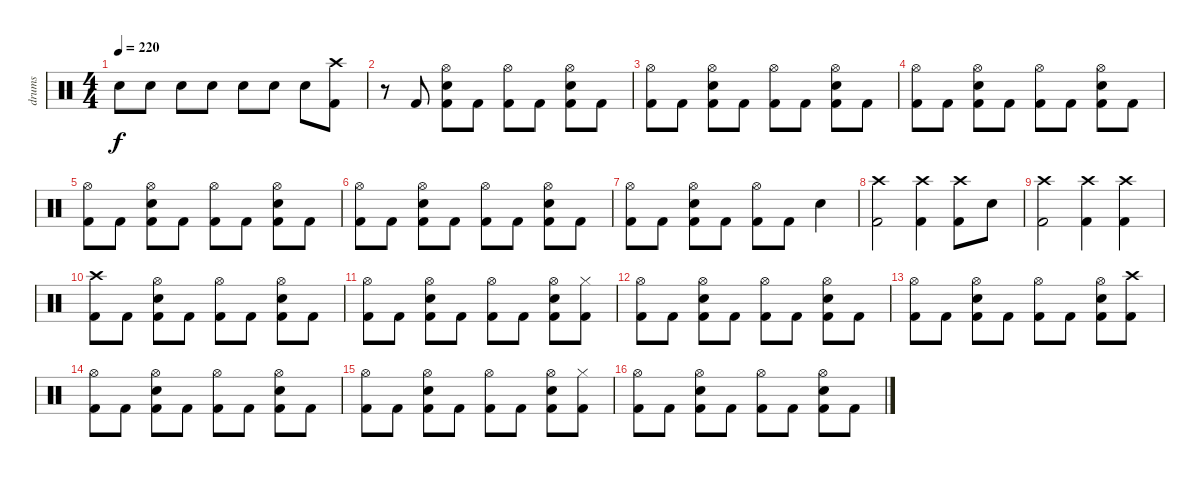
\track ("drums" "drums") {instrument percussion}
\staff {score}
\articulation defaults
\ts (4 4)
\tempo 220
\clef neutral
\ks c "Electric Snare (hit)".8{dy f} "Electric Snare (hit)".8 "Electric Snare (hit)".8 "Electric Snare (hit)".8 "Electric Snare (hit)".8 "Electric Snare (hit)".8 "Electric Snare (hit)".8
("Crash high (hit)" "Kick (hit) 2").8 |
r.8 "Kick (hit) 2".8 ("Hi-Hat (open)" "Electric Snare (hit)" "Kick (hit) 2").8 "Kick (hit) 2".8 ("Hi-Hat (open)" "Kick (hit) 2").8 "Kick (hit) 2".8 ("Hi-Hat (open)" "Electric Snare (hit)" "Kick (hit) 2").8 "Kick (hit) 2".8 |
("Hi-Hat (open)" "Kick (hit) 2").8 "Kick (hit) 2".8 ("Hi-Hat (open)" "Electric Snare (hit)" "Kick (hit) 2").8 "Kick (hit) 2".8 ("Hi-Hat (open)" "Kick (hit) 2").8 "Kick (hit) 2".8 ("Hi-Hat (open)" "Electric Snare (hit)" "Kick (hit) 2").8 "Kick (hit) 2".8 |
("Hi-Hat (open)" "Kick (hit) 2").8 "Kick (hit) 2".8 ("Hi-Hat (open)" "Electric Snare (hit)" "Kick (hit) 2").8 "Kick (hit) 2".8 ("Hi-Hat (open)" "Kick (hit) 2").8 "Kick (hit) 2".8 ("Hi-Hat (open)" "Electric Snare (hit)" "Kick (hit) 2").8 "Kick (hit) 2".8 |
("Hi-Hat (open)" "Kick (hit) 2").8 "Kick (hit) 2".8 ("Hi-Hat (open)" "Electric Snare (hit)" "Kick (hit) 2").8 "Kick (hit) 2".8 ("Hi-Hat (open)" "Kick (hit) 2").8 "Kick (hit) 2".8 ("Hi-Hat (open)" "Electric Snare (hit)" "Kick (hit) 2").8 "Kick (hit) 2".8 |
("Hi-Hat (open)" "Kick (hit) 2").8 "Kick (hit) 2".8 ("Hi-Hat (open)" "Electric Snare (hit)" "Kick (hit) 2").8 "Kick (hit) 2".8 ("Hi-Hat (open)" "Kick (hit) 2").8 "Kick (hit) 2".8 ("Hi-Hat (open)" "Electric Snare (hit)" "Kick (hit) 2").8 "Kick (hit) 2".8 |
("Hi-Hat (open)" "Kick (hit) 2").8 "Kick (hit) 2".8 ("Hi-Hat (open)" "Electric Snare (hit)" "Kick (hit) 2").8 "Kick (hit) 2".8 ("Hi-Hat (open)" "Kick (hit) 2").8 "Kick (hit) 2".8 "Electric Snare (hit)".4 |
("Crash high (hit)" "Kick (hit) 2").2 ("Crash high (hit)" "Kick (hit) 2").4 ("Crash high (hit)" "Kick (hit) 2").8 "Electric Snare (hit)".8 |
("Crash high (hit)" "Kick (hit) 2").2 ("Crash high (hit)" "Kick (hit) 2").4 ("Crash high (hit)" "Kick (hit) 2").4 |
("Crash high (hit)" "Kick (hit) 2").8 "Kick (hit) 2".8 ("Hi-Hat (open)" "Electric Snare (hit)" "Kick (hit) 2").8 "Kick (hit) 2".8 ("Hi-Hat (open)" "Kick (hit) 2").8 "Kick (hit) 2".8 ("Hi-Hat (open)" "Electric Snare (hit)" "Kick (hit) 2").8 "Kick (hit) 2".8 |
("Hi-Hat (open)" "Kick (hit) 2").8 "Kick (hit) 2".8 ("Hi-Hat (open)" "Electric Snare (hit)" "Kick (hit) 2").8 "Kick (hit) 2".8 ("Hi-Hat (open)" "Kick (hit) 2").8 "Kick (hit) 2".8 ("Hi-Hat (open)" "Electric Snare (hit)" "Kick (hit) 2").8 ("Hi-Hat (closed)" "Kick (hit) 2").8 |
("Hi-Hat (open)" "Kick (hit) 2").8 "Kick (hit) 2".8 ("Hi-Hat (open)" "Electric Snare (hit)" "Kick (hit) 2").8 "Kick (hit) 2".8 ("Hi-Hat (open)" "Kick (hit) 2").8 "Kick (hit) 2".8 ("Hi-Hat (open)" "Electric Snare (hit)" "Kick (hit) 2").8 "Kick (hit) 2".8 |
("Hi-Hat (open)" "Kick (hit) 2").8 "Kick (hit) 2".8 ("Hi-Hat (open)" "Electric Snare (hit)" "Kick (hit) 2").8 "Kick (hit) 2".8 ("Hi-Hat (open)" "Kick (hit) 2").8 "Kick (hit) 2".8 ("Hi-Hat (open)" "Electric Snare (hit)" "Kick (hit) 2").8 ("Crash high (hit)" "Kick (hit) 2").8 |
("Hi-Hat (open)" "Kick (hit) 2").8 "Kick (hit) 2".8 ("Hi-Hat (open)" "Electric Snare (hit)" "Kick (hit) 2").8 "Kick (hit) 2".8 ("Hi-Hat (open)" "Kick (hit) 2").8 "Kick (hit) 2".8 ("Hi-Hat (open)" "Electric Snare (hit)" "Kick (hit) 2").8 "Kick (hit) 2".8 |
("Hi-Hat (open)" "Kick (hit) 2").8 "Kick (hit) 2".8 ("Hi-Hat (open)" "Electric Snare (hit)" "Kick (hit) 2").8 "Kick (hit) 2".8 ("Hi-Hat (open)" "Kick (hit) 2").8 "Kick (hit) 2".8 ("Hi-Hat (open)" "Electric Snare (hit)" "Kick (hit) 2").8 ("Hi-Hat (closed)" "Kick (hit) 2").8 |
("Hi-Hat (open)" "Kick (hit) 2").8 "Kick (hit) 2".8 ("Hi-Hat (open)" "Electric Snare (hit)" "Kick (hit) 2").8 "Kick (hit) 2".8 ("Hi-Hat (open)" "Kick (hit) 2").8 "Kick (hit) 2".8 ("Hi-Hat (open)" "Electric Snare (hit)" "Kick (hit) 2").8 "Kick (hit) 2".8
